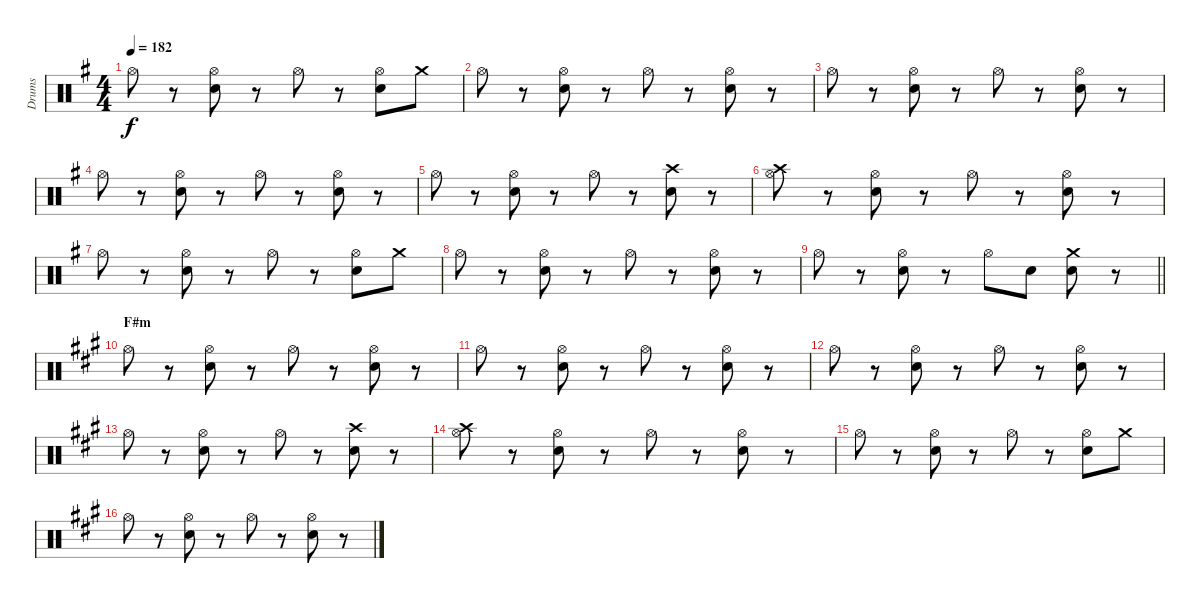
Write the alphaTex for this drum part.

\track ("Drums" "Drums") {instrument percussion}
\staff {score}
\articulation defaults
\ts (4 4)
\tempo 182
\clef neutral
\ks eminor "Hi-Hat (open)".8{dy f}
r.8 ("Hi-Hat (open)" "Snare (hit) 2").8 r.8 "Hi-Hat (open)".8 r.8 ("Hi-Hat (open)" "Snare (hit) 2").8 "Crash medium (hit)".8 |
"Hi-Hat (open)".8 r.8 ("Hi-Hat (open)" "Snare (hit) 2").8 r.8 "Hi-Hat (open)".8 r.8 ("Hi-Hat (open)" "Snare (hit) 2").8 r.8 |
"Hi-Hat (open)".8 r.8 ("Hi-Hat (open)" "Snare (hit) 2").8 r.8 "Hi-Hat (open)".8 r.8 ("Hi-Hat (open)" "Snare (hit) 2").8 r.8 |
"Hi-Hat (open)".8 r.8 ("Hi-Hat (open)" "Snare (hit) 2").8 r.8 "Hi-Hat (open)".8 r.8 ("Hi-Hat (open)" "Snare (hit) 2").8 r.8 |
"Hi-Hat (open)".8 r.8 ("Hi-Hat (open)" "Snare (hit) 2").8 r.8 "Hi-Hat (open)".8 r.8 ("Crash high (hit)" "Snare (hit) 2").8 r.8 |
("Hi-Hat (open)" "Crash high (hit)").8 r.8 ("Hi-Hat (open)" "Snare (hit) 2").8 r.8 "Hi-Hat (open)".8 r.8 ("Hi-Hat (open)" "Snare (hit) 2").8 r.8 |
"Hi-Hat (open)".8 r.8 ("Hi-Hat (open)" "Snare (hit) 2").8 r.8 "Hi-Hat (open)".8 r.8 ("Hi-Hat (open)" "Snare (hit) 2").8 "Crash medium (hit)".8 |
"Hi-Hat (open)".8 r.8 ("Hi-Hat (open)" "Snare (hit) 2").8 r.8 "Hi-Hat (open)".8 r.8 ("Hi-Hat (open)" "Snare (hit) 2").8 r.8 |
\barLineRight lightlight "Hi-Hat (open)".8
r.8 ("Hi-Hat (open)" "Snare (hit) 2").8 r.8 "Hi-Hat (open)".8 "Snare (hit) 2".8 ("Crash medium (hit)" "Snare (hit) 2").8 r.8 |
\section ("" "F#m")
\ks f#minor "Hi-Hat (open)".8
r.8 ("Hi-Hat (open)" "Snare (hit) 2").8 r.8 "Hi-Hat (open)".8 r.8 ("Hi-Hat (open)" "Snare (hit) 2").8 r.8 |
"Hi-Hat (open)".8 r.8 ("Hi-Hat (open)" "Snare (hit) 2").8 r.8 "Hi-Hat (open)".8 r.8 ("Hi-Hat (open)" "Snare (hit) 2").8 r.8 |
"Hi-Hat (open)".8 r.8 ("Hi-Hat (open)" "Snare (hit) 2").8 r.8 "Hi-Hat (open)".8 r.8 ("Hi-Hat (open)" "Snare (hit) 2").8 r.8 |
"Hi-Hat (open)".8 r.8 ("Hi-Hat (open)" "Snare (hit) 2").8 r.8 "Hi-Hat (open)".8 r.8 ("Crash high (hit)" "Snare (hit) 2").8 r.8 |
("Hi-Hat (open)" "Crash high (hit)").8 r.8 ("Hi-Hat (open)" "Snare (hit) 2").8 r.8 "Hi-Hat (open)".8 r.8 ("Hi-Hat (open)" "Snare (hit) 2").8 r.8 |
"Hi-Hat (open)".8 r.8 ("Hi-Hat (open)" "Snare (hit) 2").8 r.8 "Hi-Hat (open)".8 r.8 ("Hi-Hat (open)" "Snare (hit) 2").8 "Crash medium (hit)".8 |
"Hi-Hat (open)".8 r.8 ("Hi-Hat (open)" "Snare (hit) 2").8 r.8 "Hi-Hat (open)".8 r.8 ("Hi-Hat (open)" "Snare (hit) 2").8 r.8
